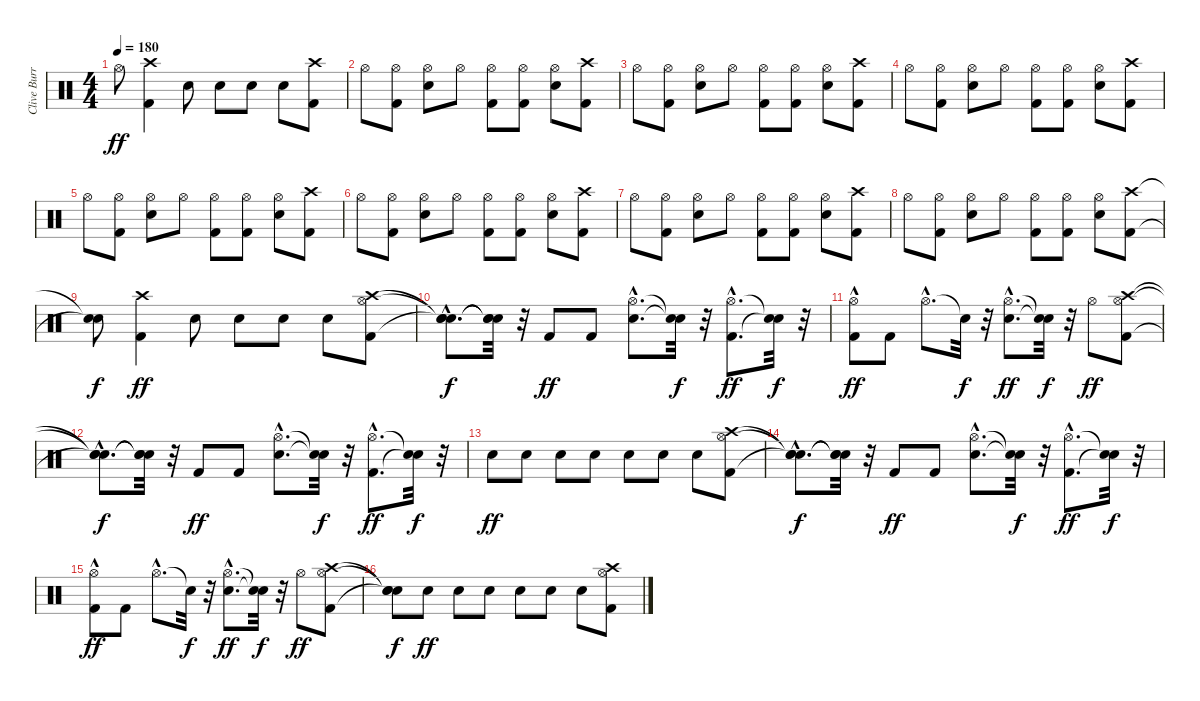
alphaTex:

\track ("Clive Burr" "Clive Burr") {instrument percussion}
\staff {score}
\articulation defaults
\ts (4 4)
\tempo 180
\clef neutral
\ks c "Hi-Hat (open)".8{dy ff}
("Kick (hit) 2" "Crash high (hit)").4 "Snare (hit) 2".8 "Snare (hit) 2".8 "Snare (hit) 2".8 "Snare (hit) 2".8 ("Kick (hit) 2" "Crash high (hit)").8 |
"Hi-Hat (open)".8 ("Kick (hit) 2" "Hi-Hat (open)").8 ("Snare (hit) 2" "Hi-Hat (open)").8 "Hi-Hat (open)".8 ("Kick (hit) 2" "Hi-Hat (open)").8 ("Kick (hit) 2" "Hi-Hat (open)").8 ("Snare (hit) 2" "Hi-Hat (open)").8 ("Kick (hit) 2" "Crash high (hit)").8 |
"Hi-Hat (open)".8 ("Kick (hit) 2" "Hi-Hat (open)").8 ("Snare (hit) 2" "Hi-Hat (open)").8 "Hi-Hat (open)".8 ("Kick (hit) 2" "Hi-Hat (open)").8 ("Kick (hit) 2" "Hi-Hat (open)").8 ("Snare (hit) 2" "Hi-Hat (open)").8 ("Kick (hit) 2" "Crash high (hit)").8 |
"Hi-Hat (open)".8 ("Kick (hit) 2" "Hi-Hat (open)").8 ("Snare (hit) 2" "Hi-Hat (open)").8 "Hi-Hat (open)".8 ("Kick (hit) 2" "Hi-Hat (open)").8 ("Kick (hit) 2" "Hi-Hat (open)").8 ("Snare (hit) 2" "Hi-Hat (open)").8 ("Kick (hit) 2" "Crash high (hit)").8 |
"Hi-Hat (open)".8 ("Kick (hit) 2" "Hi-Hat (open)").8 ("Snare (hit) 2" "Hi-Hat (open)").8 "Hi-Hat (open)".8 ("Kick (hit) 2" "Hi-Hat (open)").8 ("Kick (hit) 2" "Hi-Hat (open)").8 ("Snare (hit) 2" "Hi-Hat (open)").8 ("Kick (hit) 2" "Crash high (hit)").8 |
"Hi-Hat (open)".8 ("Kick (hit) 2" "Hi-Hat (open)").8 ("Snare (hit) 2" "Hi-Hat (open)").8 "Hi-Hat (open)".8 ("Kick (hit) 2" "Hi-Hat (open)").8 ("Kick (hit) 2" "Hi-Hat (open)").8 ("Snare (hit) 2" "Hi-Hat (open)").8 ("Kick (hit) 2" "Crash high (hit)").8 |
"Hi-Hat (open)".8 ("Kick (hit) 2" "Hi-Hat (open)").8 ("Snare (hit) 2" "Hi-Hat (open)").8 "Hi-Hat (open)".8 ("Kick (hit) 2" "Hi-Hat (open)").8 ("Kick (hit) 2" "Hi-Hat (open)").8 ("Snare (hit) 2" "Hi-Hat (open)").8 ("Kick (hit) 2" "Crash high (hit)").8 |
"Hi-Hat (open)".8 ("Kick (hit) 2" "Hi-Hat (open)").8 ("Snare (hit) 2" "Hi-Hat (open)").8 "Hi-Hat (open)".8 ("Kick (hit) 2" "Hi-Hat (open)").8 ("Kick (hit) 2" "Hi-Hat (open)").8 ("Snare (hit) 2" "Hi-Hat (open)").8 ("Kick (hit) 2" "Crash high (hit)").8 |
("Snare (hit)"{t} "Snare (hit)"{t}).8{dy f} ("Kick (hit) 2" "Crash high (hit)").4{dy ff} "Snare (hit) 2".8 "Snare (hit) 2".8 "Snare (hit) 2".8 "Snare (hit) 2".8 ("Kick (hit) 2" "Hi-Hat (open)" "Crash high (hit)").8 |
("Snare (hit)"{hac t} "Snare (hit)"{hac t} "Snare (hit)"{hac t}).8{d dy f} ("Snare (hit)"{t} "Snare (hit)"{t} "Snare (hit)"{t}).32 r.32 "Kick (hit) 2".8{dy ff} "Kick (hit) 2".8 ("Snare (hit) 2"{hac} "Hi-Hat (open)"{hac}).8{d} ("Snare (hit)"{t} "Snare (hit)"{t}).32{dy f} r.32 ("Kick (hit) 2"{hac} "Hi-Hat (open)"{hac}).8{d dy ff} ("Snare (hit)"{t} "Snare (hit)"{t}).32{dy f} r.32 |
("Kick (hit) 2" "Hi-Hat (open)"{hac}).8{dy ff} "Kick (hit) 2".8 "Hi-Hat (open)"{hac}.8{d} "Snare (hit)"{t}.32{dy f} r.32 ("Snare (hit) 2"{hac} "Hi-Hat (open)"{hac}).8{d dy ff} ("Snare (hit)"{t} "Snare (hit)"{t}).32{dy f} r.32 "Hi-Hat (open)".8{dy ff} ("Kick (hit) 2" "Hi-Hat (open)" "Crash high (hit)").8 |
("Snare (hit)"{hac t} "Snare (hit)"{hac t} "Snare (hit)"{hac t}).8{d dy f} ("Snare (hit)"{t} "Snare (hit)"{t} "Snare (hit)"{t}).32 r.32 "Kick (hit) 2".8{dy ff} "Kick (hit) 2".8 ("Snare (hit) 2"{hac} "Hi-Hat (open)"{hac}).8{d} ("Snare (hit)"{t} "Snare (hit)"{t}).32{dy f} r.32 ("Kick (hit) 2"{hac} "Hi-Hat (open)"{hac}).8{d dy ff} ("Snare (hit)"{t} "Snare (hit)"{t}).32{dy f} r.32 |
"Snare (hit) 2".8{dy ff} "Snare (hit) 2".8 "Snare (hit) 2".8 "Snare (hit) 2".8 "Snare (hit) 2".8 "Snare (hit) 2".8 "Snare (hit) 2".8 ("Kick (hit) 2" "Hi-Hat (open)" "Crash high (hit)").8 |
("Snare (hit)"{hac t} "Snare (hit)"{hac t} "Snare (hit)"{hac t}).8{d dy f} ("Snare (hit)"{t} "Snare (hit)"{t} "Snare (hit)"{t}).32 r.32 "Kick (hit) 2".8{dy ff} "Kick (hit) 2".8 ("Snare (hit) 2"{hac} "Hi-Hat (open)"{hac}).8{d} ("Snare (hit)"{t} "Snare (hit)"{t}).32{dy f} r.32 ("Kick (hit) 2"{hac} "Hi-Hat (open)"{hac}).8{d dy ff} ("Snare (hit)"{t} "Snare (hit)"{t}).32{dy f} r.32 |
("Kick (hit) 2" "Hi-Hat (open)"{hac}).8{dy ff} "Kick (hit) 2".8 "Hi-Hat (open)"{hac}.8{d} "Snare (hit)"{t}.32{dy f} r.32 ("Snare (hit) 2"{hac} "Hi-Hat (open)"{hac}).8{d dy ff} ("Snare (hit)"{t} "Snare (hit)"{t}).32{dy f} r.32 "Hi-Hat (open)".8{dy ff} ("Kick (hit) 2" "Hi-Hat (open)" "Crash high (hit)").8 |
("Snare (hit)"{t} "Snare (hit)"{t} "Snare (hit)"{t}).8{dy f} "Snare (hit) 2".8{dy ff} "Snare (hit) 2".8 "Snare (hit) 2".8 "Snare (hit) 2".8 "Snare (hit) 2".8 "Snare (hit) 2".8 ("Kick (hit) 2" "Hi-Hat (open)" "Crash high (hit)").8
